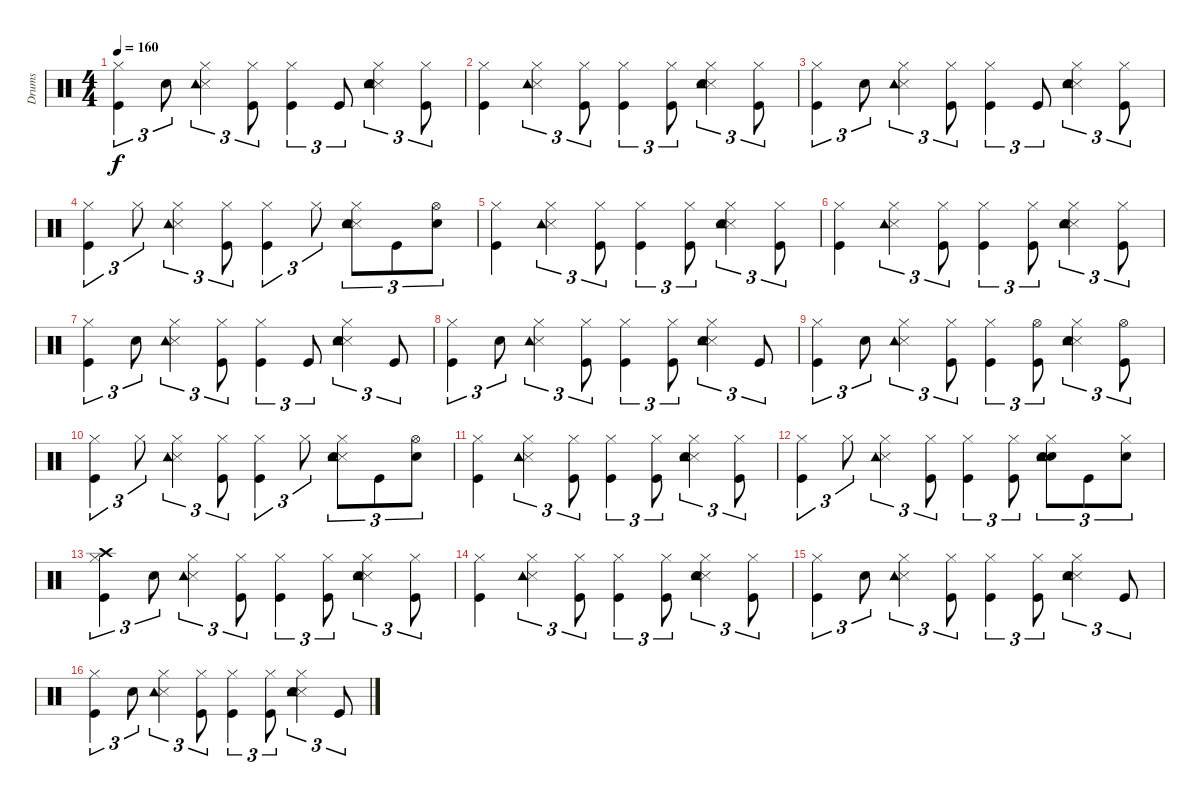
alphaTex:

\track ("Drums   " "Drums   ") {instrument percussion}
\staff {score}
\articulation defaults
\ts (4 4)
\tempo 160
\clef neutral
\ks c
("Kick (hit)" "Hi-Hat (closed)").4{tu (3 2) dy f} "Snare (hit) 2".8{tu (3 2)} ("Snare (side stick) 3" "Tambourine (hit)" "Hi-Hat (closed)").4{tu (3 2)} ("Kick (hit)" "Hi-Hat (closed)").8{tu (3 2)} ("Kick (hit)" "Hi-Hat (closed)").4{tu (3 2)} "Kick (hit)".8{tu (3 2)} ("Snare (side stick) 3" "Hand Clap (hit)" "Tambourine (hit)" "Hi-Hat (closed)").4{tu (3 2)} ("Kick (hit)" "Hi-Hat (closed)").8{tu (3 2)} |
("Kick (hit)" "Hi-Hat (closed)").4 ("Snare (side stick) 3" "Tambourine (hit)" "Hi-Hat (closed)").4{tu (3 2)} ("Kick (hit)" "Hi-Hat (closed)").8{tu (3 2)} ("Kick (hit)" "Hi-Hat (closed)").4{tu (3 2)} ("Kick (hit)" "Hi-Hat (closed)").8{tu (3 2)} ("Snare (side stick) 3" "Hand Clap (hit)" "Tambourine (hit)" "Hi-Hat (closed)").4{tu (3 2)} ("Kick (hit)" "Hi-Hat (closed)").8{tu (3 2)} |
("Kick (hit)" "Hi-Hat (closed)").4{tu (3 2)} "Snare (hit) 2".8{tu (3 2)} ("Snare (side stick) 3" "Tambourine (hit)" "Hi-Hat (closed)").4{tu (3 2)} ("Kick (hit)" "Hi-Hat (closed)").8{tu (3 2)} ("Kick (hit)" "Hi-Hat (closed)").4{tu (3 2)} "Kick (hit)".8{tu (3 2)} ("Snare (side stick) 3" "Hand Clap (hit)" "Tambourine (hit)" "Hi-Hat (closed)").4{tu (3 2)} ("Kick (hit)" "Hi-Hat (closed)").8{tu (3 2)} |
("Kick (hit)" "Hi-Hat (closed)").4{tu (3 2)} "Hi-Hat (closed)".8{tu (3 2)} ("Snare (side stick) 3" "Tambourine (hit)" "Hi-Hat (closed)").4{tu (3 2)} ("Kick (hit)" "Hi-Hat (closed)").8{tu (3 2)} ("Kick (hit)" "Hi-Hat (closed)").4{tu (3 2)} "Hi-Hat (closed)".8{tu (3 2)} ("Snare (side stick) 3" "Hand Clap (hit)" "Tambourine (hit)" "Hi-Hat (closed)").8{tu (3 2)} "Kick (hit)".8{tu (3 2)} ("Snare (hit) 2" "Hi-Hat (open)").8{tu (3 2)} |
("Kick (hit)" "Hi-Hat (closed)").4 ("Snare (side stick) 3" "Tambourine (hit)" "Hi-Hat (closed)").4{tu (3 2)} ("Kick (hit)" "Hi-Hat (closed)").8{tu (3 2)} ("Kick (hit)" "Hi-Hat (closed)").4{tu (3 2)} ("Kick (hit)" "Hi-Hat (closed)").8{tu (3 2)} ("Snare (side stick) 3" "Hand Clap (hit)" "Tambourine (hit)" "Hi-Hat (closed)").4{tu (3 2)} ("Kick (hit)" "Hi-Hat (closed)").8{tu (3 2)} |
("Kick (hit)" "Hi-Hat (closed)").4 ("Snare (side stick) 3" "Tambourine (hit)" "Hi-Hat (closed)").4{tu (3 2)} ("Kick (hit)" "Hi-Hat (closed)").8{tu (3 2)} ("Kick (hit)" "Hi-Hat (closed)").4{tu (3 2)} ("Kick (hit)" "Hi-Hat (closed)").8{tu (3 2)} ("Snare (side stick) 3" "Hand Clap (hit)" "Tambourine (hit)" "Hi-Hat (closed)").4{tu (3 2)} ("Kick (hit)" "Hi-Hat (closed)").8{tu (3 2)} |
("Kick (hit)" "Hi-Hat (closed)").4{tu (3 2)} "Snare (hit) 2".8{tu (3 2)} ("Snare (side stick) 3" "Tambourine (hit)" "Hi-Hat (closed)").4{tu (3 2)} ("Kick (hit)" "Hi-Hat (closed)").8{tu (3 2)} ("Kick (hit)" "Hi-Hat (closed)").4{tu (3 2)} "Kick (hit)".8{tu (3 2)} ("Snare (side stick) 3" "Hand Clap (hit)" "Tambourine (hit)" "Hi-Hat (closed)").4{tu (3 2)} "Kick (hit)".8{tu (3 2)} |
("Kick (hit)" "Hi-Hat (closed)").4{tu (3 2)} "Snare (hit) 2".8{tu (3 2)} ("Snare (side stick) 3" "Tambourine (hit)" "Hi-Hat (closed)").4{tu (3 2)} ("Kick (hit)" "Hi-Hat (closed)").8{tu (3 2)} ("Kick (hit)" "Hi-Hat (closed)").4{tu (3 2)} ("Kick (hit)" "Hi-Hat (closed)").8{tu (3 2)} ("Snare (side stick) 3" "Hand Clap (hit)" "Tambourine (hit)" "Hi-Hat (closed)").4{tu (3 2)} "Kick (hit)".8{tu (3 2)} |
("Kick (hit)" "Hi-Hat (closed)").4{tu (3 2)} "Snare (hit) 2".8{tu (3 2)} ("Snare (side stick) 3" "Tambourine (hit)" "Hi-Hat (closed)").4{tu (3 2)} ("Kick (hit)" "Hi-Hat (closed)").8{tu (3 2)} ("Kick (hit)" "Hi-Hat (closed)").4{tu (3 2)} ("Kick (hit)" "Hi-Hat (open)").8{tu (3 2)} ("Snare (side stick) 3" "Hand Clap (hit)" "Tambourine (hit)" "Hi-Hat (closed)").4{tu (3 2)} ("Kick (hit)" "Hi-Hat (open)").8{tu (3 2)} |
("Kick (hit)" "Hi-Hat (closed)").4{tu (3 2)} "Hi-Hat (closed)".8{tu (3 2)} ("Snare (side stick) 3" "Tambourine (hit)" "Hi-Hat (closed)").4{tu (3 2)} ("Kick (hit)" "Hi-Hat (closed)").8{tu (3 2)} ("Kick (hit)" "Hi-Hat (closed)").4{tu (3 2)} "Hi-Hat (closed)".8{tu (3 2)} ("Snare (side stick) 3" "Hand Clap (hit)" "Tambourine (hit)" "Hi-Hat (closed)").8{tu (3 2)} "Kick (hit)".8{tu (3 2)} ("Snare (hit) 2" "Hi-Hat (open)").8{tu (3 2)} |
("Kick (hit)" "Hi-Hat (closed)").4 ("Snare (side stick) 3" "Tambourine (hit)" "Hi-Hat (closed)").4{tu (3 2)} ("Kick (hit)" "Hi-Hat (closed)").8{tu (3 2)} ("Kick (hit)" "Hi-Hat (closed)").4{tu (3 2)} ("Kick (hit)" "Hi-Hat (closed)").8{tu (3 2)} ("Snare (side stick) 3" "Hand Clap (hit)" "Tambourine (hit)" "Hi-Hat (closed)").4{tu (3 2)} ("Kick (hit)" "Hi-Hat (closed)").8{tu (3 2)} |
("Kick (hit)" "Hi-Hat (closed)").4{tu (3 2)} "Hi-Hat (closed)".8{tu (3 2)} ("Snare (side stick) 3" "Tambourine (hit)" "Hi-Hat (closed)").4{tu (3 2)} ("Kick (hit)" "Hi-Hat (closed)").8{tu (3 2)} ("Kick (hit)" "Hi-Hat (closed)").4{tu (3 2)} ("Kick (hit)" "Hi-Hat (closed)").8{tu (3 2)} ("Snare (hit) 2" "Hand Clap (hit)" "Tambourine (hit)" "Hi-Hat (closed)").8{tu (3 2)} "Kick (hit)".8{tu (3 2)} ("Snare (hit) 2" "Hi-Hat (closed)").8{tu (3 2)} |
("Kick (hit)" "Crash high (hit)" "Hi-Hat (closed)").4{tu (3 2)} "Snare (hit) 2".8{tu (3 2)} ("Snare (side stick) 3" "Tambourine (hit)" "Hi-Hat (closed)").4{tu (3 2)} ("Kick (hit)" "Hi-Hat (closed)").8{tu (3 2)} ("Kick (hit)" "Hi-Hat (closed)").4{tu (3 2)} ("Kick (hit)" "Hi-Hat (closed)").8{tu (3 2)} ("Snare (side stick) 3" "Hand Clap (hit)" "Tambourine (hit)" "Hi-Hat (closed)").4{tu (3 2)} ("Kick (hit)" "Hi-Hat (closed)").8{tu (3 2)} |
("Kick (hit)" "Hi-Hat (closed)").4 ("Snare (side stick) 3" "Tambourine (hit)" "Hi-Hat (closed)").4{tu (3 2)} ("Kick (hit)" "Hi-Hat (closed)").8{tu (3 2)} ("Kick (hit)" "Hi-Hat (closed)").4{tu (3 2)} ("Kick (hit)" "Hi-Hat (closed)").8{tu (3 2)} ("Snare (side stick) 3" "Hand Clap (hit)" "Tambourine (hit)" "Hi-Hat (closed)").4{tu (3 2)} ("Kick (hit)" "Hi-Hat (closed)").8{tu (3 2)} |
("Kick (hit)" "Hi-Hat (closed)").4{tu (3 2)} "Snare (hit) 2".8{tu (3 2)} ("Snare (side stick) 3" "Tambourine (hit)" "Hi-Hat (closed)").4{tu (3 2)} ("Kick (hit)" "Hi-Hat (closed)").8{tu (3 2)} ("Kick (hit)" "Hi-Hat (closed)").4{tu (3 2)} ("Kick (hit)" "Hi-Hat (closed)").8{tu (3 2)} ("Snare (side stick) 3" "Hand Clap (hit)" "Tambourine (hit)" "Hi-Hat (closed)").4{tu (3 2)} "Kick (hit)".8{tu (3 2)} |
("Kick (hit)" "Hi-Hat (closed)").4{tu (3 2)} "Snare (hit) 2".8{tu (3 2)} ("Snare (side stick) 3" "Tambourine (hit)" "Hi-Hat (closed)").4{tu (3 2)} ("Kick (hit)" "Hi-Hat (closed)").8{tu (3 2)} ("Kick (hit)" "Hi-Hat (closed)").4{tu (3 2)} ("Kick (hit)" "Hi-Hat (closed)").8{tu (3 2)} ("Snare (side stick) 3" "Hand Clap (hit)" "Tambourine (hit)" "Hi-Hat (closed)").4{tu (3 2)} "Kick (hit)".8{tu (3 2)}
